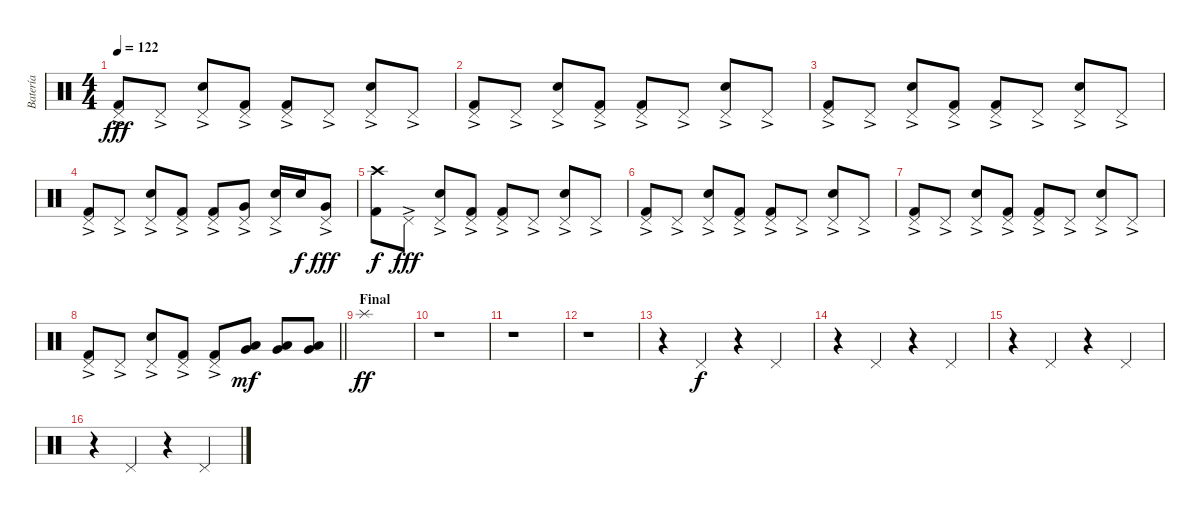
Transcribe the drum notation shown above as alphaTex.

\track ("Batería" "Batería") {instrument percussion}
\staff {score}
\articulation defaults
\ts (4 4)
\tempo 122
\clef neutral
\ks c
("Pedal Hi-Hat (hit)"{ac} "Kick (hit) 2").8{dy fff} "Pedal Hi-Hat (hit)"{ac}.8 ("Pedal Hi-Hat (hit)"{ac} "Electric Snare (hit)").8 ("Pedal Hi-Hat (hit)"{ac} "Kick (hit) 2").8 ("Pedal Hi-Hat (hit)"{ac} "Kick (hit) 2").8 "Pedal Hi-Hat (hit)"{ac}.8 ("Pedal Hi-Hat (hit)"{ac} "Electric Snare (hit)").8 "Pedal Hi-Hat (hit)"{ac}.8 |
("Pedal Hi-Hat (hit)"{ac} "Kick (hit) 2").8 "Pedal Hi-Hat (hit)"{ac}.8 ("Pedal Hi-Hat (hit)"{ac} "Electric Snare (hit)").8 ("Pedal Hi-Hat (hit)"{ac} "Kick (hit) 2").8 ("Pedal Hi-Hat (hit)"{ac} "Kick (hit) 2").8 "Pedal Hi-Hat (hit)"{ac}.8 ("Pedal Hi-Hat (hit)"{ac} "Electric Snare (hit)").8 "Pedal Hi-Hat (hit)"{ac}.8 |
("Pedal Hi-Hat (hit)"{ac} "Kick (hit) 2").8 "Pedal Hi-Hat (hit)"{ac}.8 ("Pedal Hi-Hat (hit)"{ac} "Electric Snare (hit)").8 ("Pedal Hi-Hat (hit)"{ac} "Kick (hit) 2").8 ("Pedal Hi-Hat (hit)"{ac} "Kick (hit) 2").8 "Pedal Hi-Hat (hit)"{ac}.8 ("Pedal Hi-Hat (hit)"{ac} "Electric Snare (hit)").8 "Pedal Hi-Hat (hit)"{ac}.8 |
("Pedal Hi-Hat (hit)"{ac} "Kick (hit) 2").8 "Pedal Hi-Hat (hit)"{ac}.8 ("Pedal Hi-Hat (hit)"{ac} "Electric Snare (hit)").8 ("Pedal Hi-Hat (hit)"{ac} "Kick (hit) 2").8 ("Pedal Hi-Hat (hit)"{ac} "Kick (hit) 2").8 ("Pedal Hi-Hat (hit)"{ac} "Very Low Tom (hit)").8 ("Pedal Hi-Hat (hit)"{ac} "Electric Snare (hit)").16 "Electric Snare (hit)".16{dy f} ("Pedal Hi-Hat (hit)"{ac} "Very Low Tom (hit)").8{dy fff} |
("Crash high (hit)" "Kick (hit) 2").8{dy f} "Pedal Hi-Hat (hit)"{ac}.8{dy fff} ("Pedal Hi-Hat (hit)"{ac} "Electric Snare (hit)").8 ("Pedal Hi-Hat (hit)"{ac} "Kick (hit) 2").8 ("Pedal Hi-Hat (hit)"{ac} "Kick (hit) 2").8 "Pedal Hi-Hat (hit)"{ac}.8 ("Pedal Hi-Hat (hit)"{ac} "Electric Snare (hit)").8 "Pedal Hi-Hat (hit)"{ac}.8 |
("Pedal Hi-Hat (hit)"{ac} "Kick (hit) 2").8 "Pedal Hi-Hat (hit)"{ac}.8 ("Pedal Hi-Hat (hit)"{ac} "Electric Snare (hit)").8 ("Pedal Hi-Hat (hit)"{ac} "Kick (hit) 2").8 ("Pedal Hi-Hat (hit)"{ac} "Kick (hit) 2").8 "Pedal Hi-Hat (hit)"{ac}.8 ("Pedal Hi-Hat (hit)"{ac} "Electric Snare (hit)").8 "Pedal Hi-Hat (hit)"{ac}.8 |
("Pedal Hi-Hat (hit)"{ac} "Kick (hit) 2").8 "Pedal Hi-Hat (hit)"{ac}.8 ("Pedal Hi-Hat (hit)"{ac} "Electric Snare (hit)").8 ("Pedal Hi-Hat (hit)"{ac} "Kick (hit) 2").8 ("Pedal Hi-Hat (hit)"{ac} "Kick (hit) 2").8 "Pedal Hi-Hat (hit)"{ac}.8 ("Pedal Hi-Hat (hit)"{ac} "Electric Snare (hit)").8 "Pedal Hi-Hat (hit)"{ac}.8 |
\barLineRight lightlight
("Pedal Hi-Hat (hit)"{ac} "Kick (hit) 2").8 "Pedal Hi-Hat (hit)"{ac}.8 ("Pedal Hi-Hat (hit)"{ac} "Electric Snare (hit)").8 ("Pedal Hi-Hat (hit)"{ac} "Kick (hit) 2").8 ("Pedal Hi-Hat (hit)"{ac} "Kick (hit) 2").8 ("Low Floor Tom (hit)" "Very Low Tom (hit)").8{dy mf} ("Low Floor Tom (hit)" "Very Low Tom (hit)").8 ("Low Floor Tom (hit)" "Very Low Tom (hit)").8 |
\section ("" "Final")
"Splash (hit)".1{dy ff} |
r.1 |
r.1 |
r.1 |
r.4 "Pedal Hi-Hat (hit)".4{dy f} r.4 "Pedal Hi-Hat (hit)".4 |
r.4 "Pedal Hi-Hat (hit)".4 r.4 "Pedal Hi-Hat (hit)".4 |
r.4 "Pedal Hi-Hat (hit)".4 r.4 "Pedal Hi-Hat (hit)".4 |
r.4 "Pedal Hi-Hat (hit)".4 r.4 "Pedal Hi-Hat (hit)".4
